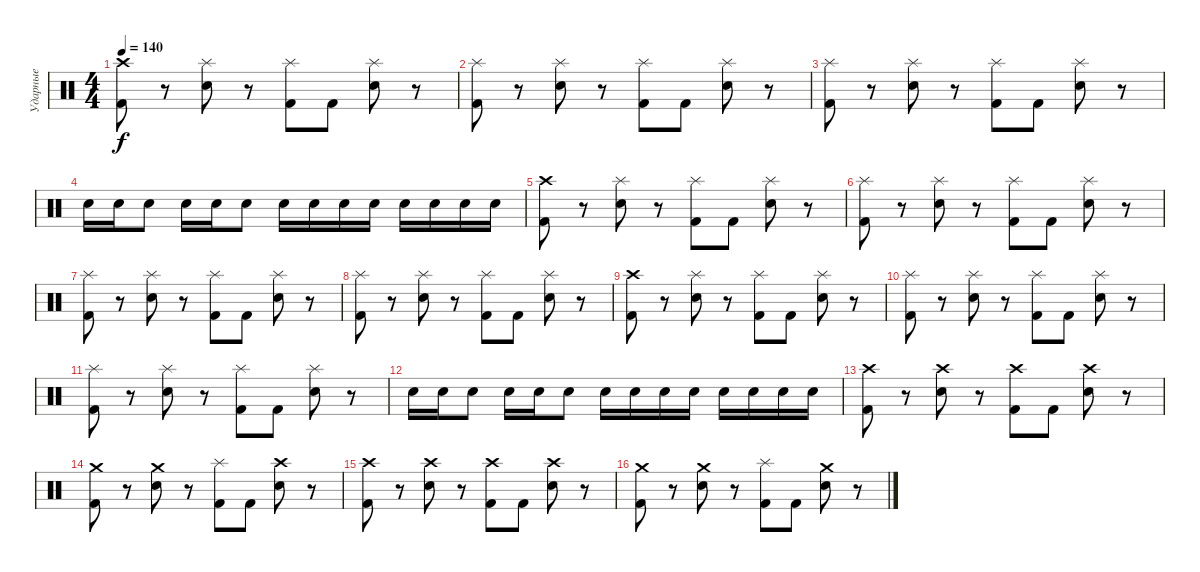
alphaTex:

\track ("Ударные" "Ударные") {instrument percussion}
\staff {score}
\articulation defaults
\ts (4 4)
\tempo 140
\clef neutral
\ks c
("Crash high (hit)" "Kick (hit) 2").8{dy f} r.8 ("Splash (hit)" "Electric Snare (hit)").8 r.8 ("Splash (hit)" "Kick (hit) 2").8 "Kick (hit) 2".8 ("Splash (hit)" "Electric Snare (hit)").8 r.8 |
("Splash (hit)" "Kick (hit) 2").8 r.8 ("Splash (hit)" "Electric Snare (hit)").8 r.8 ("Splash (hit)" "Kick (hit) 2").8 "Kick (hit) 2".8 ("Splash (hit)" "Electric Snare (hit)").8 r.8 |
("Splash (hit)" "Kick (hit) 2").8 r.8 ("Splash (hit)" "Electric Snare (hit)").8 r.8 ("Splash (hit)" "Kick (hit) 2").8 "Kick (hit) 2".8 ("Splash (hit)" "Electric Snare (hit)").8 r.8 |
"Electric Snare (hit)".16 "Electric Snare (hit)".16 "Electric Snare (hit)".8 "Electric Snare (hit)".16 "Electric Snare (hit)".16 "Electric Snare (hit)".8 "Electric Snare (hit)".16 "Electric Snare (hit)".16 "Electric Snare (hit)".16 "Electric Snare (hit)".16 "Electric Snare (hit)".16 "Electric Snare (hit)".16 "Electric Snare (hit)".16 "Electric Snare (hit)".16 |
("Crash high (hit)" "Kick (hit) 2").8 r.8 ("Splash (hit)" "Electric Snare (hit)").8 r.8 ("Splash (hit)" "Kick (hit) 2").8 "Kick (hit) 2".8 ("Splash (hit)" "Electric Snare (hit)").8 r.8 |
("Splash (hit)" "Kick (hit) 2").8 r.8 ("Splash (hit)" "Electric Snare (hit)").8 r.8 ("Splash (hit)" "Kick (hit) 2").8 "Kick (hit) 2".8 ("Splash (hit)" "Electric Snare (hit)").8 r.8 |
("Splash (hit)" "Kick (hit) 2").8 r.8 ("Splash (hit)" "Electric Snare (hit)").8 r.8 ("Splash (hit)" "Kick (hit) 2").8 "Kick (hit) 2".8 ("Splash (hit)" "Electric Snare (hit)").8 r.8 |
("Splash (hit)" "Kick (hit) 2").8 r.8 ("Splash (hit)" "Electric Snare (hit)").8 r.8 ("Splash (hit)" "Kick (hit) 2").8 "Kick (hit) 2".8 ("Splash (hit)" "Electric Snare (hit)").8 r.8 |
("Crash high (hit)" "Kick (hit) 2").8 r.8 ("Splash (hit)" "Electric Snare (hit)").8 r.8 ("Splash (hit)" "Kick (hit) 2").8 "Kick (hit) 2".8 ("Splash (hit)" "Electric Snare (hit)").8 r.8 |
("Splash (hit)" "Kick (hit) 2").8 r.8 ("Splash (hit)" "Electric Snare (hit)").8 r.8 ("Splash (hit)" "Kick (hit) 2").8 "Kick (hit) 2".8 ("Splash (hit)" "Electric Snare (hit)").8 r.8 |
("Splash (hit)" "Kick (hit) 2").8 r.8 ("Splash (hit)" "Electric Snare (hit)").8 r.8 ("Splash (hit)" "Kick (hit) 2").8 "Kick (hit) 2".8 ("Splash (hit)" "Electric Snare (hit)").8 r.8 |
"Electric Snare (hit)".16 "Electric Snare (hit)".16 "Electric Snare (hit)".8 "Electric Snare (hit)".16 "Electric Snare (hit)".16 "Electric Snare (hit)".8 "Electric Snare (hit)".16 "Electric Snare (hit)".16 "Electric Snare (hit)".16 "Electric Snare (hit)".16 "Electric Snare (hit)".16 "Electric Snare (hit)".16 "Electric Snare (hit)".16 "Electric Snare (hit)".16 |
("Crash high (hit)" "Kick (hit) 2").8 r.8 ("Crash high (hit)" "Electric Snare (hit)").8 r.8 ("Crash high (hit)" "Kick (hit) 2").8 "Kick (hit) 2".8 ("Crash high (hit)" "Electric Snare (hit)").8 r.8 |
("Crash medium (hit)" "Kick (hit) 2").8 r.8 ("Crash medium (hit)" "Electric Snare (hit)").8 r.8 ("Splash (hit)" "Kick (hit) 2").8 "Kick (hit) 2".8 ("Crash high (hit)" "Electric Snare (hit)").8 r.8 |
("Crash high (hit)" "Kick (hit) 2").8 r.8 ("Crash high (hit)" "Electric Snare (hit)").8 r.8 ("Crash high (hit)" "Kick (hit) 2").8 "Kick (hit) 2".8 ("Crash high (hit)" "Electric Snare (hit)").8 r.8 |
("Crash medium (hit)" "Kick (hit) 2").8 r.8 ("Crash medium (hit)" "Electric Snare (hit)").8 r.8 ("Splash (hit)" "Kick (hit) 2").8 "Kick (hit) 2".8 ("Crash medium (hit)" "Electric Snare (hit)").8 r.8
